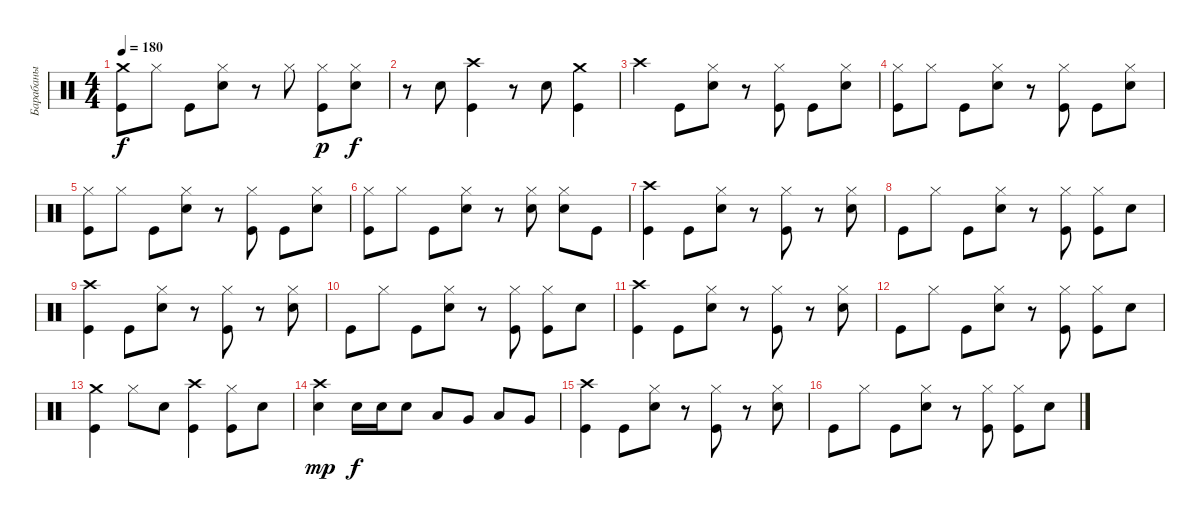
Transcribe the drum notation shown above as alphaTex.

\track ("Барабаны" "Барабаны") {instrument percussion}
\staff {score}
\articulation defaults
\ts (4 4)
\tempo 180
\clef neutral
\ks c
("Kick (hit)" "Crash medium (hit)").8{dy f} "Hi-Hat (closed)".8 "Kick (hit)".8 ("Electric Snare (hit)" "Hi-Hat (closed)").8 r.8 "Hi-Hat (closed)".8 ("Hi-Hat (closed)" "Kick (hit)").8{dy p} ("Electric Snare (hit)" "Hi-Hat (closed)").8{dy f} |
r.8 "Electric Snare (hit)".8 ("Kick (hit)" "Crash high (hit)").4 r.8 "Electric Snare (hit)".8 ("Kick (hit)" "Crash medium (hit)").4 |
"Crash high (hit)".4 "Kick (hit)".8 ("Hi-Hat (closed)" "Electric Snare (hit)").8 r.8 ("Kick (hit)" "Hi-Hat (closed)").8 "Kick (hit)".8 ("Electric Snare (hit)" "Hi-Hat (closed)").8 |
("Hi-Hat (closed)" "Kick (hit)").8 "Hi-Hat (closed)".8 "Kick (hit)".8 ("Electric Snare (hit)" "Hi-Hat (closed)").8 r.8 ("Kick (hit)" "Hi-Hat (closed)").8 "Kick (hit)".8 ("Hi-Hat (closed)" "Electric Snare (hit)").8 |
("Hi-Hat (closed)" "Kick (hit)").8 "Hi-Hat (closed)".8 "Kick (hit)".8 ("Electric Snare (hit)" "Hi-Hat (closed)").8 r.8 ("Kick (hit)" "Hi-Hat (closed)").8 "Kick (hit)".8 ("Electric Snare (hit)" "Hi-Hat (closed)").8 |
("Kick (hit)" "Hi-Hat (closed)").8 "Hi-Hat (closed)".8 "Kick (hit)".8 ("Electric Snare (hit)" "Hi-Hat (closed)").8 r.8 ("Electric Snare (hit)" "Hi-Hat (closed)").8 ("Hi-Hat (closed)" "Electric Snare (hit)").8 "Kick (hit)".8 |
("Kick (hit)" "Crash high (hit)").4 "Kick (hit)".8 ("Hi-Hat (closed)" "Electric Snare (hit)").8 r.8 ("Hi-Hat (closed)" "Kick (hit)").8 r.8 ("Electric Snare (hit)" "Hi-Hat (closed)").8 |
"Kick (hit)".8 "Hi-Hat (closed)".8 "Kick (hit)".8 ("Electric Snare (hit)" "Hi-Hat (closed)").8 r.8 ("Hi-Hat (closed)" "Kick (hit)").8 ("Kick (hit)" "Hi-Hat (closed)").8 "Electric Snare (hit)".8 |
("Crash high (hit)" "Kick (hit)").4 "Kick (hit)".8 ("Hi-Hat (closed)" "Electric Snare (hit)").8 r.8 ("Hi-Hat (closed)" "Kick (hit)").8 r.8 ("Hi-Hat (closed)" "Electric Snare (hit)").8 |
"Kick (hit)".8 "Hi-Hat (closed)".8 "Kick (hit)".8 ("Hi-Hat (closed)" "Electric Snare (hit)").8 r.8 ("Hi-Hat (closed)" "Kick (hit)").8 ("Kick (hit)" "Hi-Hat (closed)").8 "Electric Snare (hit)".8 |
("Kick (hit)" "Crash high (hit)").4 "Kick (hit)".8 ("Hi-Hat (closed)" "Electric Snare (hit)").8 r.8 ("Hi-Hat (closed)" "Kick (hit)").8 r.8 ("Hi-Hat (closed)" "Electric Snare (hit)").8 |
"Kick (hit)".8 "Hi-Hat (closed)".8 "Kick (hit)".8 ("Hi-Hat (closed)" "Electric Snare (hit)").8 r.8 ("Kick (hit)" "Hi-Hat (closed)").8 ("Hi-Hat (closed)" "Kick (hit)").8 "Electric Snare (hit)".8 |
("Kick (hit)" "Crash medium (hit)").4 "Hi-Hat (closed)".8 "Electric Snare (hit)".8 ("Crash high (hit)" "Kick (hit)").4 ("Kick (hit)" "Hi-Hat (closed)").8 "Electric Snare (hit)".8 |
("Electric Snare (hit)" "Crash high (hit)").4{dy mp} "Electric Snare (hit)".16{dy f} "Electric Snare (hit)".16 "Electric Snare (hit)".8 "Low Tom (hit)".8 "Very Low Tom (hit)".8 "Low Floor Tom (hit)".8 "Very Low Tom (hit)".8 |
("Crash high (hit)" "Kick (hit)").4 "Kick (hit)".8 ("Hi-Hat (closed)" "Electric Snare (hit)").8 r.8 ("Kick (hit)" "Hi-Hat (closed)").8 r.8 ("Hi-Hat (closed)" "Electric Snare (hit)").8 |
"Kick (hit)".8 "Hi-Hat (closed)".8 "Kick (hit)".8 ("Hi-Hat (closed)" "Electric Snare (hit)").8 r.8 ("Hi-Hat (closed)" "Kick (hit)").8 ("Hi-Hat (closed)" "Kick (hit)").8 "Electric Snare (hit)".8
